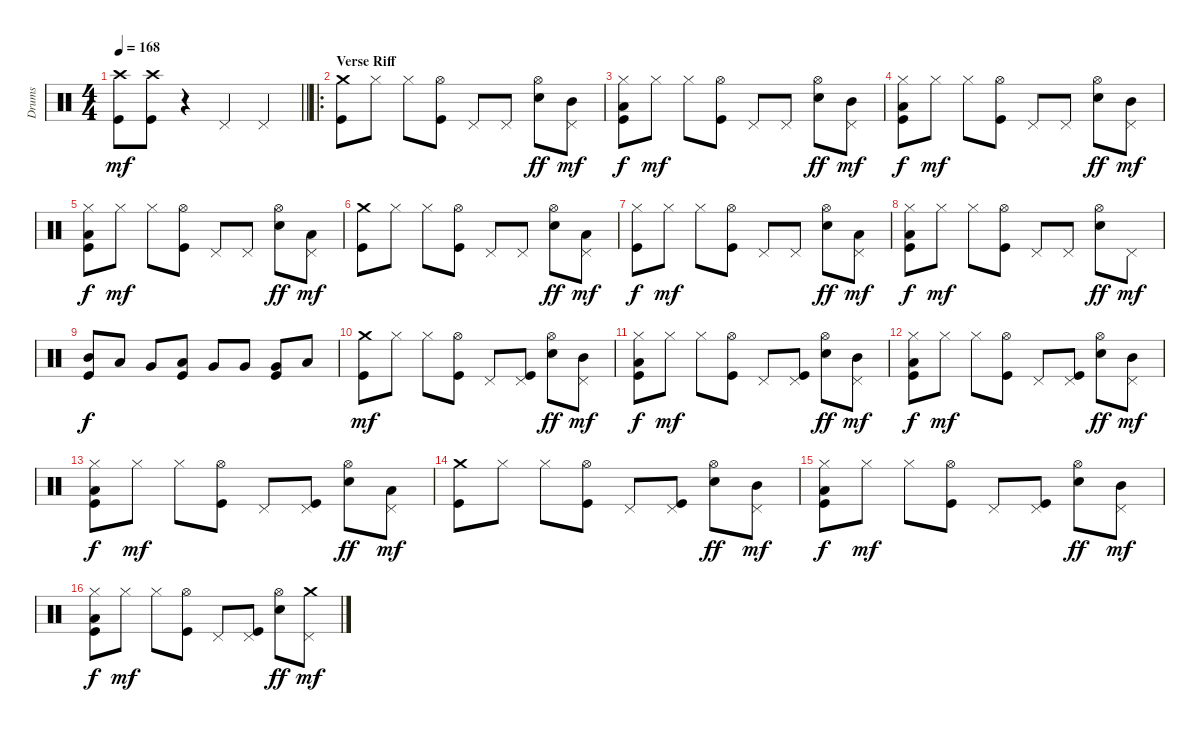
\track ("Drums" "Drums") {instrument percussion}
\staff {score}
\articulation defaults
\ts (4 4)
\tempo 168
\clef neutral
\barLineRight lightlight
\ks c
("Crash high (hit)" "Kick (hit)").8{dy mf} ("Crash high (hit)" "Kick (hit)").8 r.4 "Pedal Hi-Hat (hit)".4 "Pedal Hi-Hat (hit)".4 |
\ro
\section ("" "Verse Riff")
("Crash medium (hit)" "Kick (hit)").8 "Hi-Hat (closed)".8 "Hi-Hat (closed)".8 ("Hi-Hat (open)" "Kick (hit)").8 "Pedal Hi-Hat (hit)".8 "Pedal Hi-Hat (hit)".8 ("Hi-Hat (open)" "Snare (hit) 2").8{dy ff} ("Mid Tom (hit)" "Pedal Hi-Hat (hit)").8{dy mf} |
("Low Tom (hit)" "Hi-Hat (closed)" "Kick (hit)").8{dy f} "Hi-Hat (closed)".8{dy mf} "Hi-Hat (closed)".8 ("Hi-Hat (open)" "Kick (hit)").8 "Pedal Hi-Hat (hit)".8 "Pedal Hi-Hat (hit)".8 ("Hi-Hat (open)" "Snare (hit) 2").8{dy ff} ("Mid Tom (hit)" "Pedal Hi-Hat (hit)").8{dy mf} |
("Low Tom (hit)" "Hi-Hat (closed)" "Kick (hit)").8{dy f} "Hi-Hat (closed)".8{dy mf} "Hi-Hat (closed)".8 ("Hi-Hat (open)" "Kick (hit)").8 "Pedal Hi-Hat (hit)".8 "Pedal Hi-Hat (hit)".8 ("Hi-Hat (open)" "Snare (hit) 2").8{dy ff} ("Mid Tom (hit)" "Pedal Hi-Hat (hit)").8{dy mf} |
("Low Tom (hit)" "Hi-Hat (closed)" "Kick (hit)").8{dy f} "Hi-Hat (closed)".8{dy mf} "Hi-Hat (closed)".8 ("Hi-Hat (open)" "Kick (hit)").8 "Pedal Hi-Hat (hit)".8 "Pedal Hi-Hat (hit)".8 ("Hi-Hat (open)" "Snare (hit) 2").8{dy ff} ("Low Tom (hit)" "Pedal Hi-Hat (hit)").8{dy mf} |
("Crash medium (hit)" "Kick (hit)").8 "Hi-Hat (closed)".8 "Hi-Hat (closed)".8 ("Hi-Hat (open)" "Kick (hit)").8 "Pedal Hi-Hat (hit)".8 "Pedal Hi-Hat (hit)".8 ("Hi-Hat (open)" "Snare (hit) 2").8{dy ff} ("Low Tom (hit)" "Pedal Hi-Hat (hit)").8{dy mf} |
("Hi-Hat (closed)" "Kick (hit)").8{dy f} "Hi-Hat (closed)".8{dy mf} "Hi-Hat (closed)".8 ("Hi-Hat (open)" "Kick (hit)").8 "Pedal Hi-Hat (hit)".8 "Pedal Hi-Hat (hit)".8 ("Hi-Hat (open)" "Snare (hit) 2").8{dy ff} ("Low Tom (hit)" "Pedal Hi-Hat (hit)").8{dy mf} |
("Low Tom (hit)" "Hi-Hat (closed)" "Kick (hit)").8{dy f} "Hi-Hat (closed)".8{dy mf} "Hi-Hat (closed)".8 ("Hi-Hat (open)" "Kick (hit)").8 "Pedal Hi-Hat (hit)".8 "Pedal Hi-Hat (hit)".8 ("Hi-Hat (open)" "Snare (hit) 2").8{dy ff} "Pedal Hi-Hat (hit)".8{dy mf} |
("Mid Tom (hit)" "Kick (hit)").8{dy f} "Low Tom (hit)".8 "Very Low Tom (hit)".8 ("Low Tom (hit)" "Kick (hit)").8 "Very Low Tom (hit)".8 "Very Low Tom (hit)".8 ("Very Low Tom (hit)" "Kick (hit)").8 "Low Floor Tom (hit)".8 |
("Crash medium (hit)" "Kick (hit)").8{dy mf} "Hi-Hat (closed)".8 "Hi-Hat (closed)".8 ("Hi-Hat (open)" "Kick (hit)").8 "Pedal Hi-Hat (hit)".8 ("Pedal Hi-Hat (hit)" "Kick (hit)").8 ("Hi-Hat (open)" "Snare (hit) 2").8{dy ff} ("Mid Tom (hit)" "Pedal Hi-Hat (hit)").8{dy mf} |
("Low Tom (hit)" "Hi-Hat (closed)" "Kick (hit)").8{dy f} "Hi-Hat (closed)".8{dy mf} "Hi-Hat (closed)".8 ("Hi-Hat (open)" "Kick (hit)").8 "Pedal Hi-Hat (hit)".8 ("Pedal Hi-Hat (hit)" "Kick (hit)").8 ("Hi-Hat (open)" "Snare (hit) 2").8{dy ff} ("Mid Tom (hit)" "Pedal Hi-Hat (hit)").8{dy mf} |
("Low Tom (hit)" "Hi-Hat (closed)" "Kick (hit)").8{dy f} "Hi-Hat (closed)".8{dy mf} "Hi-Hat (closed)".8 ("Hi-Hat (open)" "Kick (hit)").8 "Pedal Hi-Hat (hit)".8 ("Pedal Hi-Hat (hit)" "Kick (hit)").8 ("Hi-Hat (open)" "Snare (hit) 2").8{dy ff} ("Mid Tom (hit)" "Pedal Hi-Hat (hit)").8{dy mf} |
("Low Tom (hit)" "Hi-Hat (closed)" "Kick (hit)").8{dy f} "Hi-Hat (closed)".8{dy mf} "Hi-Hat (closed)".8 ("Hi-Hat (open)" "Kick (hit)").8 "Pedal Hi-Hat (hit)".8 ("Pedal Hi-Hat (hit)" "Kick (hit)").8 ("Hi-Hat (open)" "Snare (hit) 2").8{dy ff} ("Low Tom (hit)" "Pedal Hi-Hat (hit)").8{dy mf} |
("Crash medium (hit)" "Kick (hit)").8 "Hi-Hat (closed)".8 "Hi-Hat (closed)".8 ("Hi-Hat (open)" "Kick (hit)").8 "Pedal Hi-Hat (hit)".8 ("Pedal Hi-Hat (hit)" "Kick (hit)").8 ("Hi-Hat (open)" "Snare (hit) 2").8{dy ff} ("Mid Tom (hit)" "Pedal Hi-Hat (hit)").8{dy mf} |
("Low Tom (hit)" "Hi-Hat (closed)" "Kick (hit)").8{dy f} "Hi-Hat (closed)".8{dy mf} "Hi-Hat (closed)".8 ("Hi-Hat (open)" "Kick (hit)").8 "Pedal Hi-Hat (hit)".8 ("Pedal Hi-Hat (hit)" "Kick (hit)").8 ("Hi-Hat (open)" "Snare (hit) 2").8{dy ff} ("Mid Tom (hit)" "Pedal Hi-Hat (hit)").8{dy mf} |
("Low Tom (hit)" "Hi-Hat (closed)" "Kick (hit)").8{dy f} "Hi-Hat (closed)".8{dy mf} "Hi-Hat (closed)".8 ("Hi-Hat (open)" "Kick (hit)").8 "Pedal Hi-Hat (hit)".8 ("Pedal Hi-Hat (hit)" "Kick (hit)").8 ("Hi-Hat (open)" "Snare (hit) 2").8{dy ff} ("Crash medium (hit)" "Pedal Hi-Hat (hit)").8{dy mf}
